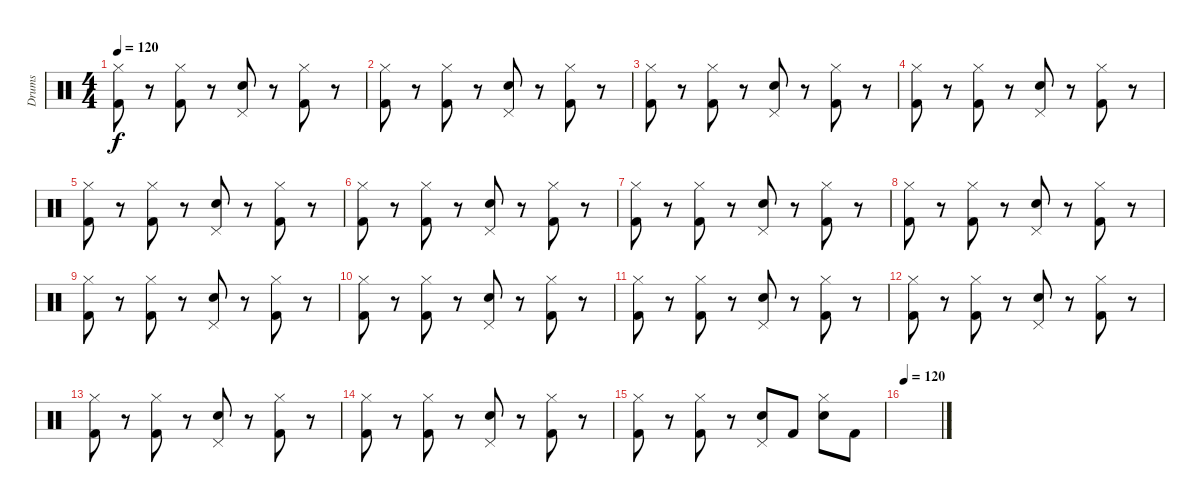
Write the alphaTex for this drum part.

\track ("Drums" "Drums") {instrument percussion}
\staff {score}
\articulation defaults
\ts (4 4)
\tempo 120
\clef neutral
\ks c
("Hi-Hat (closed)" "Kick (hit) 2").8{dy f} r.8 ("Hi-Hat (closed)" "Kick (hit) 2").8 r.8 ("Pedal Hi-Hat (hit)" "Electric Snare (hit)").8 r.8 ("Hi-Hat (closed)" "Kick (hit) 2").8 r.8 |
("Hi-Hat (closed)" "Kick (hit) 2").8 r.8 ("Hi-Hat (closed)" "Kick (hit) 2").8 r.8 ("Pedal Hi-Hat (hit)" "Electric Snare (hit)").8 r.8 ("Hi-Hat (closed)" "Kick (hit) 2").8 r.8 |
("Hi-Hat (closed)" "Kick (hit) 2").8 r.8 ("Hi-Hat (closed)" "Kick (hit) 2").8 r.8 ("Pedal Hi-Hat (hit)" "Electric Snare (hit)").8 r.8 ("Hi-Hat (closed)" "Kick (hit) 2").8 r.8 |
("Hi-Hat (closed)" "Kick (hit) 2").8 r.8 ("Hi-Hat (closed)" "Kick (hit) 2").8 r.8 ("Pedal Hi-Hat (hit)" "Electric Snare (hit)").8 r.8 ("Hi-Hat (closed)" "Kick (hit) 2").8 r.8 |
("Hi-Hat (closed)" "Kick (hit) 2").8 r.8 ("Hi-Hat (closed)" "Kick (hit) 2").8 r.8 ("Pedal Hi-Hat (hit)" "Electric Snare (hit)").8 r.8 ("Hi-Hat (closed)" "Kick (hit) 2").8 r.8 |
("Hi-Hat (closed)" "Kick (hit) 2").8 r.8 ("Hi-Hat (closed)" "Kick (hit) 2").8 r.8 ("Pedal Hi-Hat (hit)" "Electric Snare (hit)").8 r.8 ("Hi-Hat (closed)" "Kick (hit) 2").8 r.8 |
("Hi-Hat (closed)" "Kick (hit) 2").8 r.8 ("Hi-Hat (closed)" "Kick (hit) 2").8 r.8 ("Pedal Hi-Hat (hit)" "Electric Snare (hit)").8 r.8 ("Hi-Hat (closed)" "Kick (hit) 2").8 r.8 |
("Hi-Hat (closed)" "Kick (hit) 2").8 r.8 ("Hi-Hat (closed)" "Kick (hit) 2").8 r.8 ("Pedal Hi-Hat (hit)" "Electric Snare (hit)").8 r.8 ("Hi-Hat (closed)" "Kick (hit) 2").8 r.8 |
("Hi-Hat (closed)" "Kick (hit) 2").8 r.8 ("Hi-Hat (closed)" "Kick (hit) 2").8 r.8 ("Pedal Hi-Hat (hit)" "Electric Snare (hit)").8 r.8 ("Hi-Hat (closed)" "Kick (hit) 2").8 r.8 |
("Hi-Hat (closed)" "Kick (hit) 2").8 r.8 ("Hi-Hat (closed)" "Kick (hit) 2").8 r.8 ("Pedal Hi-Hat (hit)" "Electric Snare (hit)").8 r.8 ("Hi-Hat (closed)" "Kick (hit) 2").8 r.8 |
("Hi-Hat (closed)" "Kick (hit) 2").8 r.8 ("Hi-Hat (closed)" "Kick (hit) 2").8 r.8 ("Pedal Hi-Hat (hit)" "Electric Snare (hit)").8 r.8 ("Hi-Hat (closed)" "Kick (hit) 2").8 r.8 |
("Hi-Hat (closed)" "Kick (hit) 2").8 r.8 ("Hi-Hat (closed)" "Kick (hit) 2").8 r.8 ("Pedal Hi-Hat (hit)" "Electric Snare (hit)").8 r.8 ("Hi-Hat (closed)" "Kick (hit) 2").8 r.8 |
("Hi-Hat (closed)" "Kick (hit) 2").8 r.8 ("Hi-Hat (closed)" "Kick (hit) 2").8 r.8 ("Pedal Hi-Hat (hit)" "Electric Snare (hit)").8 r.8 ("Hi-Hat (closed)" "Kick (hit) 2").8 r.8 |
("Hi-Hat (closed)" "Kick (hit) 2").8 r.8 ("Hi-Hat (closed)" "Kick (hit) 2").8 r.8 ("Pedal Hi-Hat (hit)" "Electric Snare (hit)").8 r.8 ("Hi-Hat (closed)" "Kick (hit) 2").8 r.8 |
("Hi-Hat (closed)" "Kick (hit) 2").8 r.8 ("Hi-Hat (closed)" "Kick (hit) 2").8 r.8 ("Pedal Hi-Hat (hit)" "Electric Snare (hit)").8 "Kick (hit) 2".8 ("Hi-Hat (closed)" "Electric Snare (hit)").8 "Kick (hit) 2".8 |
\tempo 120
